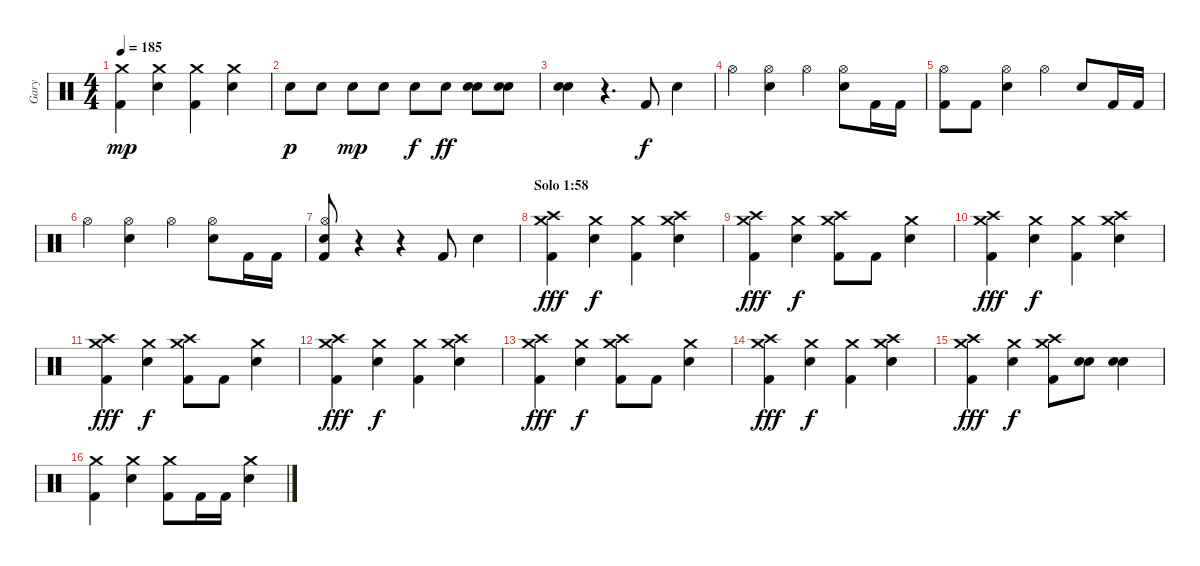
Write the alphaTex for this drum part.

\track ("Gary" "Gary") {instrument percussion}
\staff {score}
\articulation defaults
\ts (4 4)
\tempo 185
\clef neutral
\ks c
("Kick (hit) 2" "Crash medium (hit)").4{dy mp} ("Electric Snare (hit)" "Crash medium (hit)").4 ("Kick (hit) 2" "Crash medium (hit)").4 ("Electric Snare (hit)" "Crash medium (hit)").4 |
"Electric Snare (hit)".8{dy p} "Electric Snare (hit)".8 "Electric Snare (hit)".8{dy mp} "Electric Snare (hit)".8 "Electric Snare (hit)".8{dy f} "Electric Snare (hit)".8{dy ff} ("Electric Snare (hit)" "Electric Snare (hit)").8 ("Electric Snare (hit)" "Electric Snare (hit)").8 |
("Electric Snare (hit)" "Electric Snare (hit)").4 r.4{d} "Kick (hit) 2".8{dy f} "Electric Snare (hit)".4 |
"Hi-Hat (open)".4 ("Snare (hit) 2" "Hi-Hat (open)").4 "Hi-Hat (open)".4 ("Snare (hit) 2" "Hi-Hat (open)").8 "Kick (hit) 2".16 "Kick (hit) 2".16 |
("Kick (hit) 2" "Hi-Hat (open)").8 "Kick (hit) 2".8 ("Snare (hit) 2" "Hi-Hat (open)").4 "Hi-Hat (open)".4 "Snare (hit) 2".8 "Kick (hit) 2".16 "Kick (hit) 2".16 |
"Hi-Hat (open)".4 ("Snare (hit) 2" "Hi-Hat (open)").4 "Hi-Hat (open)".4 ("Snare (hit) 2" "Hi-Hat (open)").8 "Kick (hit) 2".16 "Kick (hit) 2".16 |
("Kick (hit) 2" "Snare (hit) 2" "Hi-Hat (open)").8 r.4 r.4 "Kick (hit) 2".8 "Electric Snare (hit)".4 |
\section ("" "Solo 1:58")
("Crash high (hit)" "Kick (hit) 2" "Crash medium (hit)").4{dy fff} ("Electric Snare (hit)" "Crash medium (hit)").4{dy f} ("Kick (hit) 2" "Crash medium (hit)").4 ("Crash high (hit)" "Electric Snare (hit)" "Crash medium (hit)").4 |
("Crash high (hit)" "Kick (hit) 2" "Crash medium (hit)").4{dy fff} ("Electric Snare (hit)" "Crash medium (hit)").4{dy f} ("Crash high (hit)" "Kick (hit) 2" "Crash medium (hit)").8 "Kick (hit) 2".8 ("Electric Snare (hit)" "Crash medium (hit)").4 |
("Crash high (hit)" "Kick (hit) 2" "Crash medium (hit)").4{dy fff} ("Electric Snare (hit)" "Crash medium (hit)").4{dy f} ("Kick (hit) 2" "Crash medium (hit)").4 ("Crash high (hit)" "Electric Snare (hit)" "Crash medium (hit)").4 |
("Crash high (hit)" "Kick (hit) 2" "Crash medium (hit)").4{dy fff} ("Electric Snare (hit)" "Crash medium (hit)").4{dy f} ("Crash high (hit)" "Kick (hit) 2" "Crash medium (hit)").8 "Kick (hit) 2".8 ("Electric Snare (hit)" "Crash medium (hit)").4 |
("Crash high (hit)" "Kick (hit) 2" "Crash medium (hit)").4{dy fff} ("Electric Snare (hit)" "Crash medium (hit)").4{dy f} ("Kick (hit) 2" "Crash medium (hit)").4 ("Crash high (hit)" "Electric Snare (hit)" "Crash medium (hit)").4 |
("Crash high (hit)" "Kick (hit) 2" "Crash medium (hit)").4{dy fff} ("Electric Snare (hit)" "Crash medium (hit)").4{dy f} ("Crash high (hit)" "Kick (hit) 2" "Crash medium (hit)").8 "Kick (hit) 2".8 ("Electric Snare (hit)" "Crash medium (hit)").4 |
("Crash high (hit)" "Kick (hit) 2" "Crash medium (hit)").4{dy fff} ("Electric Snare (hit)" "Crash medium (hit)").4{dy f} ("Kick (hit) 2" "Crash medium (hit)").4 ("Crash high (hit)" "Electric Snare (hit)" "Crash medium (hit)").4 |
("Crash high (hit)" "Kick (hit) 2" "Crash medium (hit)").4{dy fff} ("Electric Snare (hit)" "Crash medium (hit)").4{dy f} ("Crash high (hit)" "Kick (hit) 2" "Crash medium (hit)").8 ("Electric Snare (hit)" "Electric Snare (hit)").8 ("Electric Snare (hit)" "Electric Snare (hit)").4 |
("Kick (hit) 2" "Crash medium (hit)").4 ("Electric Snare (hit)" "Crash medium (hit)").4 ("Kick (hit) 2" "Crash medium (hit)").8 "Kick (hit) 2".16 "Kick (hit) 2".16 ("Electric Snare (hit)" "Crash medium (hit)").4
